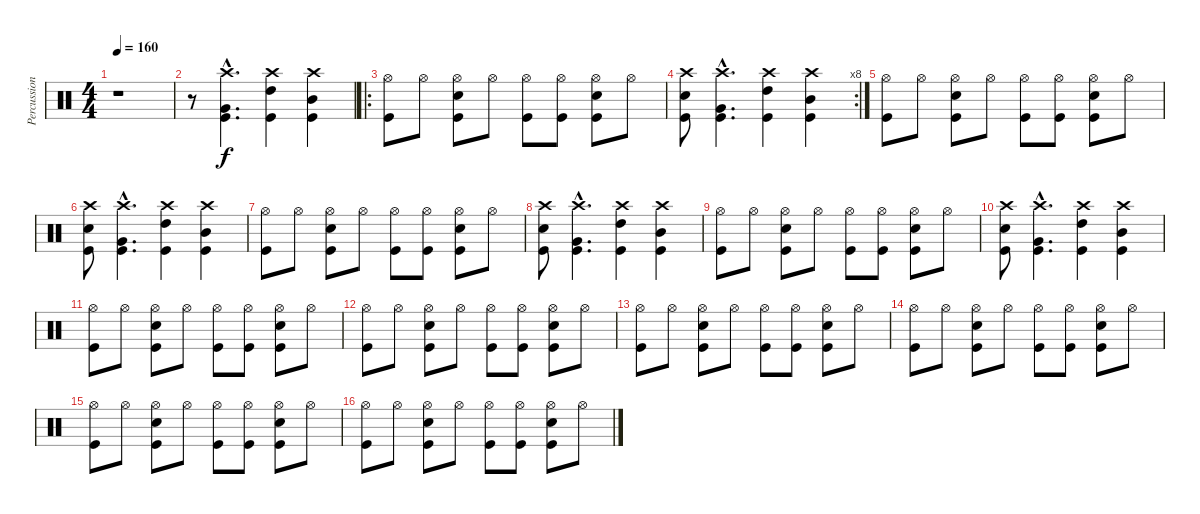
\track ("Percussions" "Percussion") {instrument percussion}
\staff {score}
\articulation defaults
\ts (4 4)
\tempo 160
\clef neutral
\ks c
r.1{dy f} |
r.8 ("Crash high (hit)"{hac} "Very Low Tom (hit)"{hac} "Kick (hit)"{hac}).4{d} ("Crash high (hit)" "High Tom (hit)" "Kick (hit)").4 ("Crash high (hit)" "Mid Tom (hit)" "Kick (hit)").4 |
\ro
("Hi-Hat (open)" "Kick (hit)").8 "Hi-Hat (open)".8 ("Hi-Hat (open)" "Electric Snare (hit)" "Kick (hit)").8 "Hi-Hat (open)".8 ("Hi-Hat (open)" "Kick (hit)").8 ("Hi-Hat (open)" "Kick (hit)").8 ("Hi-Hat (open)" "Electric Snare (hit)" "Kick (hit)").8 "Hi-Hat (open)".8 |
\rc 8
("Crash high (hit)" "Electric Snare (hit)" "Kick (hit)").8 ("Crash high (hit)"{hac} "Very Low Tom (hit)"{hac} "Kick (hit)"{hac}).4{d} ("Crash high (hit)" "High Tom (hit)" "Kick (hit)").4 ("Crash high (hit)" "Mid Tom (hit)" "Kick (hit)").4 |
("Hi-Hat (open)" "Kick (hit)").8 "Hi-Hat (open)".8 ("Hi-Hat (open)" "Electric Snare (hit)" "Kick (hit)").8 "Hi-Hat (open)".8 ("Hi-Hat (open)" "Kick (hit)").8 ("Hi-Hat (open)" "Kick (hit)").8 ("Hi-Hat (open)" "Electric Snare (hit)" "Kick (hit)").8 "Hi-Hat (open)".8 |
("Crash high (hit)" "Electric Snare (hit)" "Kick (hit)").8 ("Crash high (hit)"{hac} "Very Low Tom (hit)"{hac} "Kick (hit)"{hac}).4{d} ("Crash high (hit)" "High Tom (hit)" "Kick (hit)").4 ("Crash high (hit)" "Mid Tom (hit)" "Kick (hit)").4 |
("Hi-Hat (open)" "Kick (hit)").8 "Hi-Hat (open)".8 ("Hi-Hat (open)" "Electric Snare (hit)" "Kick (hit)").8 "Hi-Hat (open)".8 ("Hi-Hat (open)" "Kick (hit)").8 ("Hi-Hat (open)" "Kick (hit)").8 ("Hi-Hat (open)" "Electric Snare (hit)" "Kick (hit)").8 "Hi-Hat (open)".8 |
("Crash high (hit)" "Electric Snare (hit)" "Kick (hit)").8 ("Crash high (hit)"{hac} "Very Low Tom (hit)"{hac} "Kick (hit)"{hac}).4{d} ("Crash high (hit)" "High Tom (hit)" "Kick (hit)").4 ("Crash high (hit)" "Mid Tom (hit)" "Kick (hit)").4 |
("Hi-Hat (open)" "Kick (hit)").8 "Hi-Hat (open)".8 ("Hi-Hat (open)" "Electric Snare (hit)" "Kick (hit)").8 "Hi-Hat (open)".8 ("Hi-Hat (open)" "Kick (hit)").8 ("Hi-Hat (open)" "Kick (hit)").8 ("Hi-Hat (open)" "Electric Snare (hit)" "Kick (hit)").8 "Hi-Hat (open)".8 |
("Crash high (hit)" "Electric Snare (hit)" "Kick (hit)").8 ("Crash high (hit)"{hac} "Very Low Tom (hit)"{hac} "Kick (hit)"{hac}).4{d} ("Crash high (hit)" "High Tom (hit)" "Kick (hit)").4 ("Crash high (hit)" "Mid Tom (hit)" "Kick (hit)").4 |
("Hi-Hat (open)" "Kick (hit)").8 "Hi-Hat (open)".8 ("Hi-Hat (open)" "Electric Snare (hit)" "Kick (hit)").8 "Hi-Hat (open)".8 ("Hi-Hat (open)" "Kick (hit)").8 ("Hi-Hat (open)" "Kick (hit)").8 ("Hi-Hat (open)" "Electric Snare (hit)" "Kick (hit)").8 "Hi-Hat (open)".8 |
("Hi-Hat (open)" "Kick (hit)").8 "Hi-Hat (open)".8 ("Hi-Hat (open)" "Electric Snare (hit)" "Kick (hit)").8 "Hi-Hat (open)".8 ("Hi-Hat (open)" "Kick (hit)").8 ("Hi-Hat (open)" "Kick (hit)").8 ("Hi-Hat (open)" "Electric Snare (hit)" "Kick (hit)").8 "Hi-Hat (open)".8 |
("Hi-Hat (open)" "Kick (hit)").8 "Hi-Hat (open)".8 ("Hi-Hat (open)" "Electric Snare (hit)" "Kick (hit)").8 "Hi-Hat (open)".8 ("Hi-Hat (open)" "Kick (hit)").8 ("Hi-Hat (open)" "Kick (hit)").8 ("Hi-Hat (open)" "Electric Snare (hit)" "Kick (hit)").8 "Hi-Hat (open)".8 |
("Hi-Hat (open)" "Kick (hit)").8 "Hi-Hat (open)".8 ("Hi-Hat (open)" "Electric Snare (hit)" "Kick (hit)").8 "Hi-Hat (open)".8 ("Hi-Hat (open)" "Kick (hit)").8 ("Hi-Hat (open)" "Kick (hit)").8 ("Hi-Hat (open)" "Electric Snare (hit)" "Kick (hit)").8 "Hi-Hat (open)".8 |
("Hi-Hat (open)" "Kick (hit)").8 "Hi-Hat (open)".8 ("Hi-Hat (open)" "Electric Snare (hit)" "Kick (hit)").8 "Hi-Hat (open)".8 ("Hi-Hat (open)" "Kick (hit)").8 ("Hi-Hat (open)" "Kick (hit)").8 ("Hi-Hat (open)" "Electric Snare (hit)" "Kick (hit)").8 "Hi-Hat (open)".8 |
("Hi-Hat (open)" "Kick (hit)").8 "Hi-Hat (open)".8 ("Hi-Hat (open)" "Electric Snare (hit)" "Kick (hit)").8 "Hi-Hat (open)".8 ("Hi-Hat (open)" "Kick (hit)").8 ("Hi-Hat (open)" "Kick (hit)").8 ("Hi-Hat (open)" "Electric Snare (hit)" "Kick (hit)").8 "Hi-Hat (open)".8
